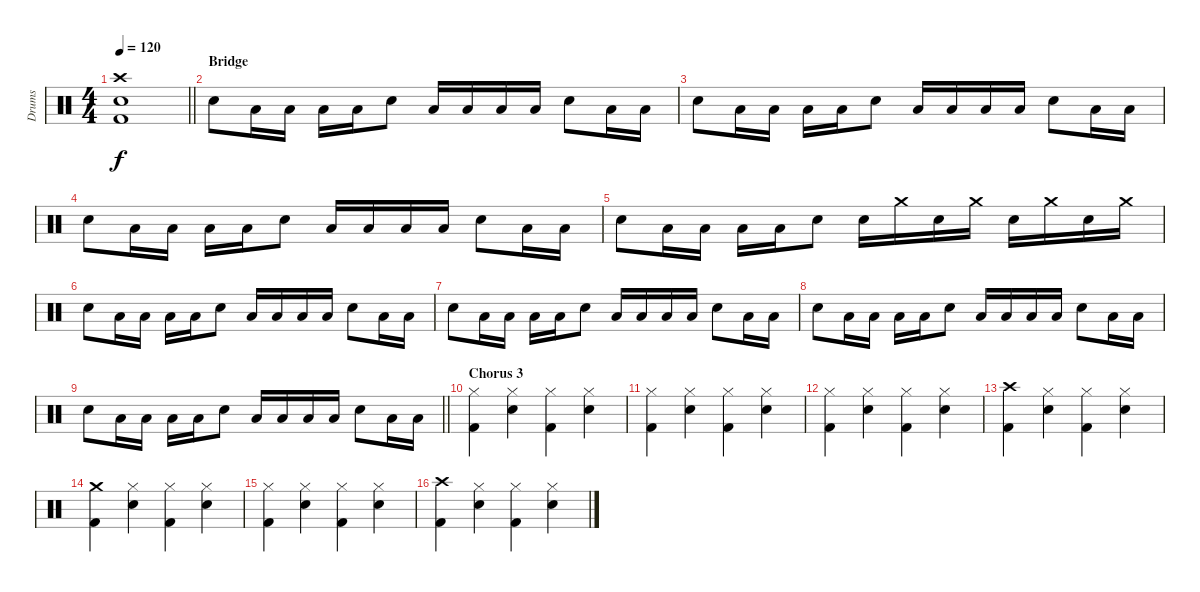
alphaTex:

\track ("Drums" "Drums") {instrument percussion}
\staff {score}
\articulation defaults
\ts (4 4)
\tempo 120
\clef neutral
\barLineRight lightlight
\ks c
("Crash high (hit)" "Electric Snare (hit)" "Kick (hit) 2").1{dy f} |
\section ("" "Bridge")
"Electric Snare (hit)".8 "Low Tom (hit)".16 "Low Tom (hit)".16 "Low Tom (hit)".16 "Low Tom (hit)".16 "Electric Snare (hit)".8 "Low Tom (hit)".16 "Low Tom (hit)".16 "Low Tom (hit)".16 "Low Tom (hit)".16 "Electric Snare (hit)".8 "Low Tom (hit)".16 "Low Tom (hit)".16 |
"Electric Snare (hit)".8 "Low Tom (hit)".16 "Low Tom (hit)".16 "Low Tom (hit)".16 "Low Tom (hit)".16 "Electric Snare (hit)".8 "Low Tom (hit)".16 "Low Tom (hit)".16 "Low Tom (hit)".16 "Low Tom (hit)".16 "Electric Snare (hit)".8 "Low Tom (hit)".16 "Low Tom (hit)".16 |
"Electric Snare (hit)".8 "Low Tom (hit)".16 "Low Tom (hit)".16 "Low Tom (hit)".16 "Low Tom (hit)".16 "Electric Snare (hit)".8 "Low Tom (hit)".16 "Low Tom (hit)".16 "Low Tom (hit)".16 "Low Tom (hit)".16 "Electric Snare (hit)".8 "Low Tom (hit)".16 "Low Tom (hit)".16 |
"Electric Snare (hit)".8 "Low Tom (hit)".16 "Low Tom (hit)".16 "Low Tom (hit)".16 "Low Tom (hit)".16 "Electric Snare (hit)".8 "Electric Snare (hit)".16 "Crash medium (hit)".16 "Electric Snare (hit)".16 "Crash medium (hit)".16 "Electric Snare (hit)".16 "Crash medium (hit)".16 "Electric Snare (hit)".16 "Crash medium (hit)".16 |
"Electric Snare (hit)".8 "Low Tom (hit)".16 "Low Tom (hit)".16 "Low Tom (hit)".16 "Low Tom (hit)".16 "Electric Snare (hit)".8 "Low Tom (hit)".16 "Low Tom (hit)".16 "Low Tom (hit)".16 "Low Tom (hit)".16 "Electric Snare (hit)".8 "Low Tom (hit)".16 "Low Tom (hit)".16 |
"Electric Snare (hit)".8 "Low Tom (hit)".16 "Low Tom (hit)".16 "Low Tom (hit)".16 "Low Tom (hit)".16 "Electric Snare (hit)".8 "Low Tom (hit)".16 "Low Tom (hit)".16 "Low Tom (hit)".16 "Low Tom (hit)".16 "Electric Snare (hit)".8 "Low Tom (hit)".16 "Low Tom (hit)".16 |
"Electric Snare (hit)".8 "Low Tom (hit)".16 "Low Tom (hit)".16 "Low Tom (hit)".16 "Low Tom (hit)".16 "Electric Snare (hit)".8 "Low Tom (hit)".16 "Low Tom (hit)".16 "Low Tom (hit)".16 "Low Tom (hit)".16 "Electric Snare (hit)".8 "Low Tom (hit)".16 "Low Tom (hit)".16 |
\barLineRight lightlight "Electric Snare (hit)".8 "Low Tom (hit)".16 "Low Tom (hit)".16 "Low Tom (hit)".16 "Low Tom (hit)".16 "Electric Snare (hit)".8 "Low Tom (hit)".16 "Low Tom (hit)".16 "Low Tom (hit)".16 "Low Tom (hit)".16 "Electric Snare (hit)".8 "Low Tom (hit)".16 "Low Tom (hit)".16
|
\section ("" "Chorus 3")
("Hi-Hat (closed)" "Kick (hit) 2").4 ("Hi-Hat (closed)" "Electric Snare (hit)").4 ("Hi-Hat (closed)" "Kick (hit) 2").4 ("Hi-Hat (closed)" "Electric Snare (hit)").4 |
("Hi-Hat (closed)" "Kick (hit) 2").4 ("Hi-Hat (closed)" "Electric Snare (hit)").4 ("Hi-Hat (closed)" "Kick (hit) 2").4 ("Hi-Hat (closed)" "Electric Snare (hit)").4 |
("Hi-Hat (closed)" "Kick (hit) 2").4 ("Hi-Hat (closed)" "Electric Snare (hit)").4 ("Hi-Hat (closed)" "Kick (hit) 2").4 ("Hi-Hat (closed)" "Electric Snare (hit)").4 |
("Crash high (hit)" "Kick (hit) 2").4 ("Hi-Hat (closed)" "Electric Snare (hit)").4 ("Hi-Hat (closed)" "Kick (hit) 2").4 ("Hi-Hat (closed)" "Electric Snare (hit)").4 |
("Crash medium (hit)" "Kick (hit) 2").4 ("Hi-Hat (closed)" "Electric Snare (hit)").4 ("Hi-Hat (closed)" "Kick (hit) 2").4 ("Hi-Hat (closed)" "Electric Snare (hit)").4 |
("Hi-Hat (closed)" "Kick (hit) 2").4 ("Hi-Hat (closed)" "Electric Snare (hit)").4 ("Hi-Hat (closed)" "Kick (hit) 2").4 ("Hi-Hat (closed)" "Electric Snare (hit)").4 |
("Crash high (hit)" "Kick (hit) 2").4 ("Hi-Hat (closed)" "Electric Snare (hit)").4 ("Hi-Hat (closed)" "Kick (hit) 2").4 ("Hi-Hat (closed)" "Electric Snare (hit)").4
